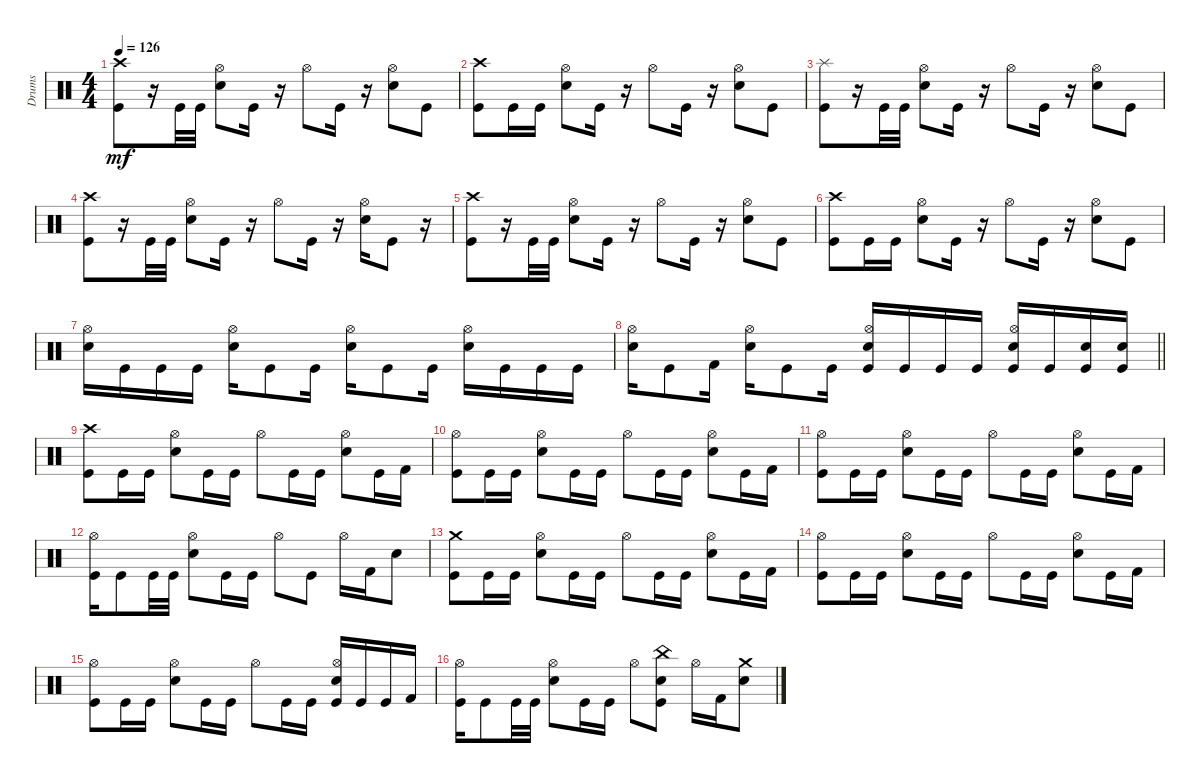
\track ("Drums" "Drums") {instrument percussion bank 127}
\staff {score}
\articulation defaults
\ts (4 4)
\tempo 126
\clef neutral
\ks c
("Crash high (hit)" "Kick (hit)").8{dy mf} r.16 "Kick (hit)".32 "Kick (hit)".32 ("Hi-Hat (open)" "Snare (hit) 2").8 "Kick (hit)".16 r.16 "Hi-Hat (open)".8 "Kick (hit)".16 r.16 ("Hi-Hat (open)" "Snare (hit) 2").8 "Kick (hit)".8 |
("Crash high (hit)" "Kick (hit)").8 "Kick (hit)".16 "Kick (hit)".16 ("Hi-Hat (open)" "Snare (hit) 2").8 "Kick (hit)".16 r.16 "Hi-Hat (open)".8 "Kick (hit)".16 r.16 ("Hi-Hat (open)" "Snare (hit) 2").8 "Kick (hit)".8 |
("Splash (hit)" "Kick (hit)").8 r.16 "Kick (hit)".32 "Kick (hit)".32 ("Hi-Hat (open)" "Snare (hit) 2").8 "Kick (hit)".16 r.16 "Hi-Hat (open)".8 "Kick (hit)".16 r.16 ("Hi-Hat (open)" "Snare (hit) 2").8 "Kick (hit)".8 |
("Crash high (hit)" "Kick (hit)").8 r.16 "Kick (hit)".32 "Kick (hit)".32 ("Hi-Hat (open)" "Snare (hit) 2").8 "Kick (hit)".16 r.16 "Hi-Hat (open)".8 "Kick (hit)".16 r.16 ("Hi-Hat (open)" "Snare (hit) 2").16 "Kick (hit)".8 r.16 |
("Crash high (hit)" "Kick (hit)").8 r.16 "Kick (hit)".32 "Kick (hit)".32 ("Hi-Hat (open)" "Snare (hit) 2").8 "Kick (hit)".16 r.16 "Hi-Hat (open)".8 "Kick (hit)".16 r.16 ("Hi-Hat (open)" "Snare (hit) 2").8 "Kick (hit)".8 |
("Crash high (hit)" "Kick (hit)").8 "Kick (hit)".16 "Kick (hit)".16 ("Hi-Hat (open)" "Snare (hit) 2").8 "Kick (hit)".16 r.16 "Hi-Hat (open)".8 "Kick (hit)".16 r.16 ("Hi-Hat (open)" "Snare (hit) 2").8 "Kick (hit)".8 |
("Hi-Hat (open)" "Snare (hit) 2").16 "Kick (hit)".16 "Kick (hit)".16 "Kick (hit)".16 ("Hi-Hat (open)" "Snare (hit) 2").16 "Kick (hit)".8 "Kick (hit)".16 ("Hi-Hat (open)" "Snare (hit) 2").16 "Kick (hit)".8 "Kick (hit)".16 ("Hi-Hat (open)" "Snare (hit) 2").16 "Kick (hit)".16 "Kick (hit)".16 "Kick (hit)".16 |
\barLineRight lightlight
("Hi-Hat (open)" "Snare (hit) 2").16 "Kick (hit)".8 "Kick (hit) 2".16 ("Hi-Hat (open)" "Snare (hit) 2").16 "Kick (hit)".8 "Kick (hit)".16 ("Hi-Hat (open)" "Snare (hit) 2" "Kick (hit)").16 "Kick (hit)".16 "Kick (hit)".16 "Kick (hit)".16 ("Hi-Hat (open)" "Snare (hit) 2" "Kick (hit)").16 "Kick (hit)".16 ("Snare (hit) 2" "Kick (hit)").16 ("Snare (hit) 2" "Kick (hit)").16 |
("Crash high (hit)" "Kick (hit)").8 "Kick (hit)".16 "Kick (hit)".16 ("Hi-Hat (open)" "Snare (hit) 2").8 "Kick (hit)".16 "Kick (hit)".16 "Hi-Hat (open)".8 "Kick (hit)".16 "Kick (hit)".16 ("Hi-Hat (open)" "Snare (hit) 2").8 "Kick (hit)".16 "Kick (hit) 2".16 |
("Hi-Hat (open)" "Kick (hit)").8 "Kick (hit)".16 "Kick (hit)".16 ("Hi-Hat (open)" "Snare (hit) 2").8 "Kick (hit)".16 "Kick (hit)".16 "Hi-Hat (open)".8 "Kick (hit)".16 "Kick (hit)".16 ("Hi-Hat (open)" "Snare (hit) 2").8 "Kick (hit)".16 "Kick (hit) 2".16 |
("Hi-Hat (open)" "Kick (hit)").8 "Kick (hit)".16 "Kick (hit)".16 ("Hi-Hat (open)" "Snare (hit) 2").8 "Kick (hit)".16 "Kick (hit)".16 "Hi-Hat (open)".8 "Kick (hit)".16 "Kick (hit)".16 ("Hi-Hat (open)" "Snare (hit) 2").8 "Kick (hit)".16 "Kick (hit) 2".16 |
("Hi-Hat (open)" "Kick (hit)").16 "Kick (hit)".8 "Kick (hit)".32 "Kick (hit)".32 ("Hi-Hat (open)" "Snare (hit) 2").8 "Kick (hit)".16 "Kick (hit)".16 "Hi-Hat (open)".8 "Kick (hit)".8 "Hi-Hat (open)".16 "Kick (hit) 2".16 "Snare (hit) 2".8 |
("Crash medium (hit)" "Kick (hit)").8 "Kick (hit)".16 "Kick (hit)".16 ("Hi-Hat (open)" "Snare (hit) 2").8 "Kick (hit)".16 "Kick (hit)".16 "Hi-Hat (open)".8 "Kick (hit)".16 "Kick (hit)".16 ("Hi-Hat (open)" "Snare (hit) 2").8 "Kick (hit)".16 "Kick (hit) 2".16 |
("Hi-Hat (open)" "Kick (hit)").8 "Kick (hit)".16 "Kick (hit)".16 ("Hi-Hat (open)" "Snare (hit) 2").8 "Kick (hit)".16 "Kick (hit)".16 "Hi-Hat (open)".8 "Kick (hit)".16 "Kick (hit)".16 ("Hi-Hat (open)" "Snare (hit) 2").8 "Kick (hit)".16 "Kick (hit) 2".16 |
("Hi-Hat (open)" "Kick (hit)").8 "Kick (hit)".16 "Kick (hit)".16 ("Hi-Hat (open)" "Snare (hit) 2").8 "Kick (hit)".16 "Kick (hit)".16 "Hi-Hat (open)".8 "Kick (hit)".16 "Kick (hit)".16 ("Hi-Hat (open)" "Snare (hit) 2" "Kick (hit)").16 "Kick (hit)".16 "Kick (hit)".16 "Kick (hit) 2".16 |
("Hi-Hat (open)" "Kick (hit)").16 "Kick (hit)".8 "Kick (hit)".32 "Kick (hit)".32 ("Hi-Hat (open)" "Snare (hit) 2").8 "Kick (hit)".16 "Kick (hit)".16 "Hi-Hat (open)".8 ("China (hit)" "Snare (hit) 2" "Kick (hit)").8 "Hi-Hat (open)".16 "Kick (hit) 2".16 ("Crash medium (hit)" "Snare (hit) 2").8
